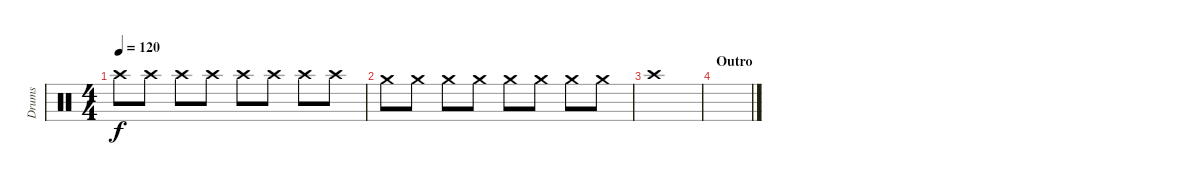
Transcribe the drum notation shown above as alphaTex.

\track ("Drums" "Drums") {instrument percussion}
\staff {score}
\articulation defaults
\ts (4 4)
\tempo 120
\clef neutral
\ks c "Crash high (hit)".8{dy f} "Crash high (hit)".8 "Crash high (hit)".8 "Crash high (hit)".8 "Crash high (hit)".8 "Crash high (hit)".8 "Crash high (hit)".8 "Crash high (hit)".8
|
"Crash medium (hit)".8 "Crash medium (hit)".8 "Crash medium (hit)".8 "Crash medium (hit)".8 "Crash medium (hit)".8 "Crash medium (hit)".8 "Crash medium (hit)".8 "Crash medium (hit)".8 |
"Crash high (hit)".1 |
\section ("" "Outro")
